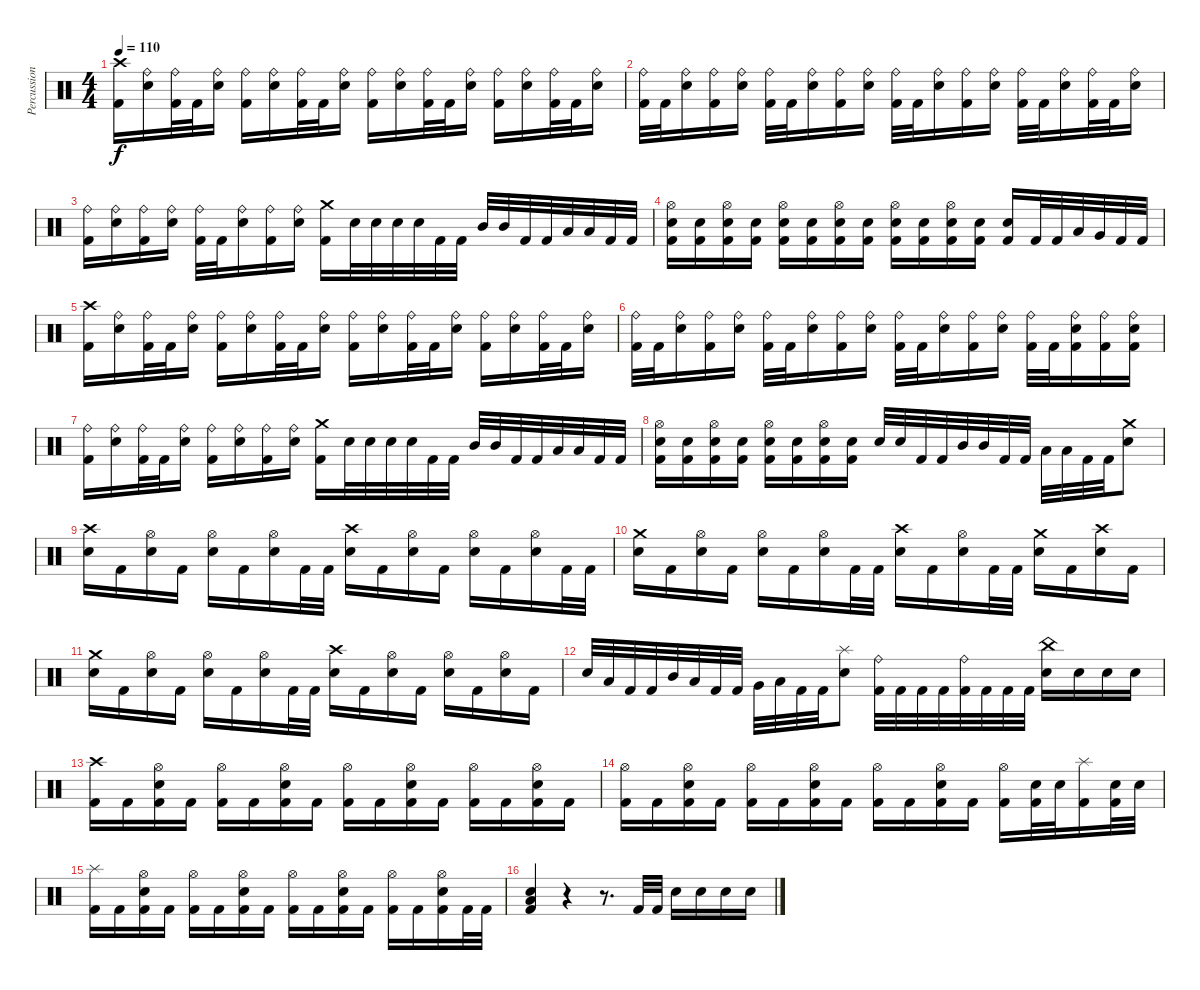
\track ("Percussion" "Percussion") {instrument percussion}
\staff {score}
\articulation defaults
\ts (4 4)
\tempo 110
\clef neutral
\ks c
("Crash high (hit)" "Kick (hit) 2").16{dy f} ("Ride (bell)" "Electric Snare (hit)").16 ("Ride (bell)" "Kick (hit) 2").32 "Kick (hit) 2".32 ("Ride (bell)" "Electric Snare (hit)").16 ("Ride (bell)" "Kick (hit) 2").16 ("Ride (bell)" "Electric Snare (hit)").16 ("Ride (bell)" "Kick (hit) 2").32 "Kick (hit) 2".32 ("Ride (bell)" "Electric Snare (hit)").16 ("Ride (bell)" "Kick (hit) 2").16 ("Ride (bell)" "Electric Snare (hit)").16 ("Ride (bell)" "Kick (hit) 2").32 "Kick (hit) 2".32 ("Ride (bell)" "Electric Snare (hit)").16 ("Ride (bell)" "Kick (hit) 2").16 ("Ride (bell)" "Electric Snare (hit)").16 ("Ride (bell)" "Kick (hit) 2").32 "Kick (hit) 2".32 ("Ride (bell)" "Electric Snare (hit)").16 |
("Ride (bell)" "Kick (hit) 2").32 "Kick (hit) 2".32 ("Ride (bell)" "Electric Snare (hit)").16 ("Ride (bell)" "Kick (hit) 2").16 ("Ride (bell)" "Electric Snare (hit)").16 ("Ride (bell)" "Kick (hit) 2").32 "Kick (hit) 2".32 ("Ride (bell)" "Electric Snare (hit)").16 ("Ride (bell)" "Kick (hit) 2").16 ("Ride (bell)" "Electric Snare (hit)").16 ("Ride (bell)" "Kick (hit) 2").32 "Kick (hit) 2".32 ("Ride (bell)" "Electric Snare (hit)").16 ("Ride (bell)" "Kick (hit) 2").16 ("Ride (bell)" "Electric Snare (hit)").16 ("Ride (bell)" "Kick (hit) 2").32 "Kick (hit) 2".32 ("Ride (bell)" "Electric Snare (hit)").16 ("Ride (bell)" "Kick (hit) 2").32 "Kick (hit) 2".32 ("Ride (bell)" "Electric Snare (hit)").16 |
("Ride (bell)" "Kick (hit) 2").16 ("Ride (bell)" "Electric Snare (hit)").16 ("Ride (bell)" "Kick (hit) 2").16 ("Ride (bell)" "Electric Snare (hit)").16 ("Ride (bell)" "Kick (hit) 2").32 "Kick (hit) 2".32 ("Ride (bell)" "Electric Snare (hit)").16 ("Ride (bell)" "Kick (hit) 2").16 ("Ride (bell)" "Electric Snare (hit)").16 ("Crash medium (hit)" "Kick (hit) 2").16 "Electric Snare (hit)".32 "Electric Snare (hit)".32 "Electric Snare (hit)".32 "Electric Snare (hit)".32 "Kick (hit) 2".32 "Kick (hit) 2".32 "Mid Tom (hit)".32 "Mid Tom (hit)".32 "Kick (hit) 2".32 "Kick (hit) 2".32 "Low Tom (hit)".32 "Low Tom (hit)".32 "Kick (hit) 2".32 "Kick (hit) 2".32 |
("Hi-Hat (open)" "Electric Snare (hit)" "Kick (hit) 2").16 ("Electric Snare (hit)" "Kick (hit) 2").16 ("Hi-Hat (open)" "Electric Snare (hit)" "Kick (hit) 2").16 ("Electric Snare (hit)" "Kick (hit) 2").16 ("Hi-Hat (open)" "Electric Snare (hit)" "Kick (hit) 2").16 ("Electric Snare (hit)" "Kick (hit) 2").16 ("Hi-Hat (open)" "Electric Snare (hit)" "Kick (hit) 2").16 ("Electric Snare (hit)" "Kick (hit) 2").16 ("Hi-Hat (open)" "Electric Snare (hit)" "Kick (hit) 2").16 ("Electric Snare (hit)" "Kick (hit) 2").16 ("Hi-Hat (open)" "Electric Snare (hit)" "Kick (hit) 2").16 ("Electric Snare (hit)" "Kick (hit) 2").16 ("Electric Snare (hit)" "Kick (hit) 2").16 "Kick (hit) 2".32 "Kick (hit) 2".32 "Low Tom (hit)".32 "Very Low Tom (hit)".32 "Kick (hit) 2".32 "Kick (hit) 2".32 |
("Crash high (hit)" "Kick (hit) 2").16 ("Ride (bell)" "Electric Snare (hit)").16 ("Ride (bell)" "Kick (hit) 2").32 "Kick (hit) 2".32 ("Ride (bell)" "Electric Snare (hit)").16 ("Ride (bell)" "Kick (hit) 2").16 ("Ride (bell)" "Electric Snare (hit)").16 ("Ride (bell)" "Kick (hit) 2").32 "Kick (hit) 2".32 ("Ride (bell)" "Electric Snare (hit)").16 ("Ride (bell)" "Kick (hit) 2").16 ("Ride (bell)" "Electric Snare (hit)").16 ("Ride (bell)" "Kick (hit) 2").32 "Kick (hit) 2".32 ("Ride (bell)" "Electric Snare (hit)").16 ("Ride (bell)" "Kick (hit) 2").16 ("Ride (bell)" "Electric Snare (hit)").16 ("Ride (bell)" "Kick (hit) 2").32 "Kick (hit) 2".32 ("Ride (bell)" "Electric Snare (hit)").16 |
("Ride (bell)" "Kick (hit) 2").32 "Kick (hit) 2".32 ("Ride (bell)" "Electric Snare (hit)").16 ("Ride (bell)" "Kick (hit) 2").16 ("Ride (bell)" "Electric Snare (hit)").16 ("Ride (bell)" "Kick (hit) 2").32 "Kick (hit) 2".32 ("Ride (bell)" "Electric Snare (hit)").16 ("Ride (bell)" "Kick (hit) 2").16 ("Ride (bell)" "Electric Snare (hit)").16 ("Ride (bell)" "Kick (hit) 2").32 "Kick (hit) 2".32 ("Ride (bell)" "Electric Snare (hit)").16 ("Ride (bell)" "Kick (hit) 2").16 ("Ride (bell)" "Electric Snare (hit)").16 ("Ride (bell)" "Kick (hit) 2").32 "Kick (hit) 2".32 ("Ride (bell)" "Electric Snare (hit)" "Kick (hit) 2").16 ("Ride (bell)" "Kick (hit) 2").16 ("Ride (bell)" "Electric Snare (hit)" "Kick (hit) 2").16 |
("Ride (bell)" "Kick (hit) 2").16 ("Ride (bell)" "Electric Snare (hit)").16 ("Ride (bell)" "Kick (hit) 2").32 "Kick (hit) 2".32 ("Ride (bell)" "Electric Snare (hit)").16 ("Ride (bell)" "Kick (hit) 2").16 ("Ride (bell)" "Electric Snare (hit)").16 ("Ride (bell)" "Kick (hit) 2").16 ("Ride (bell)" "Electric Snare (hit)").16 ("Crash medium (hit)" "Kick (hit) 2").16 "Electric Snare (hit)".32 "Electric Snare (hit)".32 "Electric Snare (hit)".32 "Electric Snare (hit)".32 "Kick (hit) 2".32 "Kick (hit) 2".32 "Mid Tom (hit)".32 "Mid Tom (hit)".32 "Kick (hit) 2".32 "Kick (hit) 2".32 "Low Tom (hit)".32 "Low Tom (hit)".32 "Kick (hit) 2".32 "Kick (hit) 2".32 |
("Hi-Hat (open)" "Electric Snare (hit)" "Kick (hit) 2").16 ("Electric Snare (hit)" "Kick (hit) 2").16 ("Hi-Hat (open)" "Electric Snare (hit)" "Kick (hit) 2").16 ("Electric Snare (hit)" "Kick (hit) 2").16 ("Hi-Hat (open)" "Electric Snare (hit)" "Kick (hit) 2").16 ("Electric Snare (hit)" "Kick (hit) 2").16 ("Hi-Hat (open)" "Electric Snare (hit)" "Kick (hit) 2").16 ("Electric Snare (hit)" "Kick (hit) 2").16 "Electric Snare (hit)".32 "Electric Snare (hit)".32 "Kick (hit) 2".32 "Kick (hit) 2".32 "Mid Tom (hit)".32 "Mid Tom (hit)".32 "Kick (hit) 2".32 "Kick (hit) 2".32 "Low Tom (hit)".32 "Low Tom (hit)".32 "Kick (hit) 2".32 "Kick (hit) 2".32 ("Crash medium (hit)" "Electric Snare (hit)").8 |
("Crash high (hit)" "Electric Snare (hit)").16 "Kick (hit) 2".16 ("Hi-Hat (open)" "Electric Snare (hit)").16 "Kick (hit) 2".16 ("Hi-Hat (open)" "Electric Snare (hit)").16 "Kick (hit) 2".16 ("Hi-Hat (open)" "Electric Snare (hit)").16 "Kick (hit) 2".32 "Kick (hit) 2".32 ("Crash high (hit)" "Electric Snare (hit)").16 "Kick (hit) 2".16 ("Hi-Hat (open)" "Electric Snare (hit)").16 "Kick (hit) 2".16 ("Hi-Hat (open)" "Electric Snare (hit)").16 "Kick (hit) 2".16 ("Hi-Hat (open)" "Electric Snare (hit)").16 "Kick (hit) 2".32 "Kick (hit) 2".32 |
("Crash medium (hit)" "Electric Snare (hit)").16 "Kick (hit) 2".16 ("Hi-Hat (open)" "Electric Snare (hit)").16 "Kick (hit) 2".16 ("Hi-Hat (open)" "Electric Snare (hit)").16 "Kick (hit) 2".16 ("Hi-Hat (open)" "Electric Snare (hit)").16 "Kick (hit) 2".32 "Kick (hit) 2".32 ("Crash high (hit)" "Electric Snare (hit)").16 "Kick (hit) 2".16 ("Hi-Hat (open)" "Electric Snare (hit)").16 "Kick (hit) 2".32 "Kick (hit) 2".32 ("Crash medium (hit)" "Electric Snare (hit)").16 "Kick (hit) 2".16 ("Crash high (hit)" "Electric Snare (hit)").16 "Kick (hit) 2".16 |
("Crash medium (hit)" "Electric Snare (hit)").16 "Kick (hit) 2".16 ("Hi-Hat (open)" "Electric Snare (hit)").16 "Kick (hit) 2".16 ("Hi-Hat (open)" "Electric Snare (hit)").16 "Kick (hit) 2".16 ("Hi-Hat (open)" "Electric Snare (hit)").16 "Kick (hit) 2".32 "Kick (hit) 2".32 ("Crash high (hit)" "Electric Snare (hit)").16 "Kick (hit) 2".16 ("Hi-Hat (open)" "Electric Snare (hit)").16 "Kick (hit) 2".16 ("Hi-Hat (open)" "Electric Snare (hit)").16 "Kick (hit) 2".16 ("Hi-Hat (open)" "Electric Snare (hit)").16 "Kick (hit) 2".16 |
"Electric Snare (hit)".32 "Low Tom (hit)".32 "Kick (hit) 2".32 "Kick (hit) 2".32 "Mid Tom (hit)".32 "Low Floor Tom (hit)".32 "Kick (hit) 2".32 "Kick (hit) 2".32 "Very Low Tom (hit)".32 "Low Floor Tom (hit)".32 "Kick (hit) 2".32 "Kick (hit) 2".32 ("Splash (hit)" "Electric Snare (hit)").8 ("Ride (bell)" "Kick (hit) 2").32 "Kick (hit) 2".32 "Kick (hit) 2".32 "Kick (hit) 2".32 ("Ride (bell)" "Kick (hit) 2").32 "Kick (hit) 2".32 "Kick (hit) 2".32 "Kick (hit) 2".32 ("China (hit)" "Electric Snare (hit)").16 "Electric Snare (hit)".16 "Electric Snare (hit)".16 "Electric Snare (hit)".16 |
("Crash high (hit)" "Kick (hit) 2").16 "Kick (hit) 2".16 ("Hi-Hat (open)" "Electric Snare (hit)" "Kick (hit) 2").16 "Kick (hit) 2".16 ("Hi-Hat (open)" "Kick (hit) 2").16 "Kick (hit) 2".16 ("Hi-Hat (open)" "Electric Snare (hit)" "Kick (hit) 2").16 "Kick (hit) 2".16 ("Hi-Hat (open)" "Kick (hit) 2").16 "Kick (hit) 2".16 ("Hi-Hat (open)" "Electric Snare (hit)" "Kick (hit) 2").16 "Kick (hit) 2".16 ("Hi-Hat (open)" "Kick (hit) 2").16 "Kick (hit) 2".16 ("Hi-Hat (open)" "Electric Snare (hit)" "Kick (hit) 2").16 "Kick (hit) 2".16 |
("Hi-Hat (open)" "Kick (hit) 2").16 "Kick (hit) 2".16 ("Hi-Hat (open)" "Electric Snare (hit)" "Kick (hit) 2").16 "Kick (hit) 2".16 ("Hi-Hat (open)" "Kick (hit) 2").16 "Kick (hit) 2".16 ("Hi-Hat (open)" "Electric Snare (hit)" "Kick (hit) 2").16 "Kick (hit) 2".16 ("Hi-Hat (open)" "Kick (hit) 2").16 "Kick (hit) 2".16 ("Hi-Hat (open)" "Electric Snare (hit)" "Kick (hit) 2").16 "Kick (hit) 2".16 ("Hi-Hat (open)" "Kick (hit) 2").16 ("Electric Snare (hit)" "Kick (hit) 2").32 "Electric Snare (hit)".32 ("Splash (hit)" "Kick (hit) 2").16 ("Electric Snare (hit)" "Kick (hit) 2").32 "Electric Snare (hit)".32 |
("Splash (hit)" "Kick (hit) 2").16 "Kick (hit) 2".16 ("Hi-Hat (open)" "Electric Snare (hit)" "Kick (hit) 2").16 "Kick (hit) 2".16 ("Hi-Hat (open)" "Kick (hit) 2").16 "Kick (hit) 2".16 ("Hi-Hat (open)" "Electric Snare (hit)" "Kick (hit) 2").16 "Kick (hit) 2".16 ("Hi-Hat (open)" "Kick (hit) 2").16 "Kick (hit) 2".16 ("Hi-Hat (open)" "Electric Snare (hit)" "Kick (hit) 2").16 "Kick (hit) 2".16 ("Hi-Hat (open)" "Kick (hit) 2").16 "Kick (hit) 2".16 ("Hi-Hat (open)" "Electric Snare (hit)" "Kick (hit) 2").16 "Kick (hit) 2".32 "Kick (hit) 2".32 |
("Electric Snare (hit)" "Low Floor Tom (hit)" "Kick (hit) 2").4 r.4 r.8{d} "Kick (hit) 2".32 "Kick (hit) 2".32 "Electric Snare (hit)".16 "Electric Snare (hit)".16 "Electric Snare (hit)".16 "Electric Snare (hit)".16
